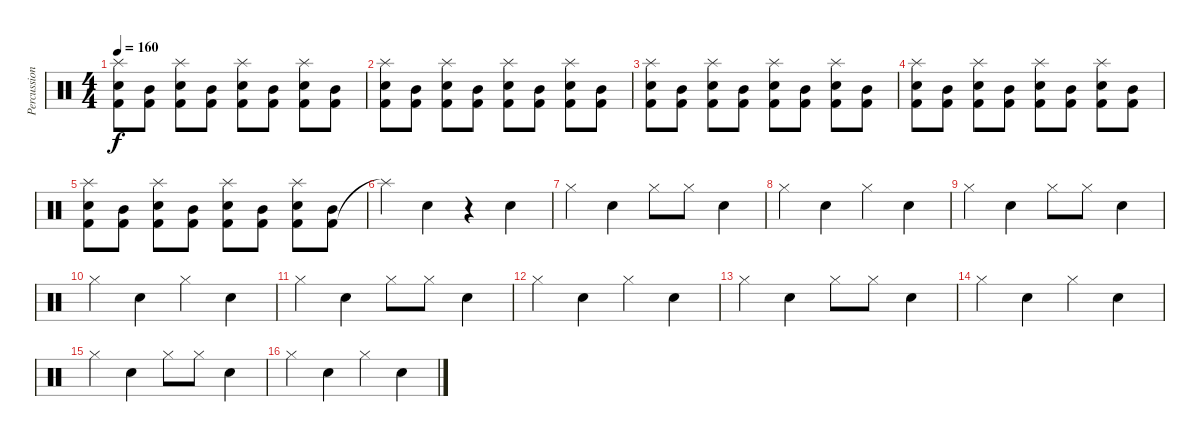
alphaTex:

\track ("Percussion" "Percussion") {instrument percussion}
\staff {score}
\articulation defaults
\ts (4 4)
\tempo 160
\clef neutral
\ks c
("Kick (hit) 2" "Snare (hit) 2" "Splash (hit)").8{dy f} ("Kick (hit) 2" "Mid Tom (hit)").8 ("Kick (hit) 2" "Snare (hit) 2" "Splash (hit)").8 ("Kick (hit) 2" "Mid Tom (hit)").8 ("Kick (hit) 2" "Snare (hit) 2" "Splash (hit)").8 ("Kick (hit) 2" "Mid Tom (hit)").8 ("Kick (hit) 2" "Snare (hit) 2" "Splash (hit)").8 ("Kick (hit) 2" "Mid Tom (hit)").8 |
("Kick (hit) 2" "Snare (hit) 2" "Splash (hit)").8 ("Kick (hit) 2" "Mid Tom (hit)").8 ("Kick (hit) 2" "Snare (hit) 2" "Splash (hit)").8 ("Kick (hit) 2" "Mid Tom (hit)").8 ("Kick (hit) 2" "Snare (hit) 2" "Splash (hit)").8 ("Kick (hit) 2" "Mid Tom (hit)").8 ("Kick (hit) 2" "Snare (hit) 2" "Splash (hit)").8 ("Kick (hit) 2" "Mid Tom (hit)").8 |
("Kick (hit) 2" "Snare (hit) 2" "Splash (hit)").8 ("Kick (hit) 2" "Mid Tom (hit)").8 ("Kick (hit) 2" "Snare (hit) 2" "Splash (hit)").8 ("Kick (hit) 2" "Mid Tom (hit)").8 ("Kick (hit) 2" "Snare (hit) 2" "Splash (hit)").8 ("Kick (hit) 2" "Mid Tom (hit)").8 ("Kick (hit) 2" "Snare (hit) 2" "Splash (hit)").8 ("Kick (hit) 2" "Mid Tom (hit)").8 |
("Kick (hit) 2" "Snare (hit) 2" "Splash (hit)").8 ("Kick (hit) 2" "Mid Tom (hit)").8 ("Kick (hit) 2" "Snare (hit) 2" "Splash (hit)").8 ("Kick (hit) 2" "Mid Tom (hit)").8 ("Kick (hit) 2" "Snare (hit) 2" "Splash (hit)").8 ("Kick (hit) 2" "Mid Tom (hit)").8 ("Kick (hit) 2" "Snare (hit) 2" "Splash (hit)").8 ("Kick (hit) 2" "Mid Tom (hit)").8 |
("Kick (hit) 2" "Snare (hit) 2" "Splash (hit)").8 ("Kick (hit) 2" "Mid Tom (hit)").8 ("Kick (hit) 2" "Snare (hit) 2" "Splash (hit)").8 ("Kick (hit) 2" "Mid Tom (hit)").8 ("Kick (hit) 2" "Snare (hit) 2" "Splash (hit)").8 ("Kick (hit) 2" "Mid Tom (hit)").8 ("Kick (hit) 2" "Snare (hit) 2" "Splash (hit)").8 ("Kick (hit) 2" "Mid Tom (hit)").8 |
"Splash (hit)"{t}.4 "Snare (hit) 2".4 r.4 "Snare (hit) 2".4 |
"Hi-Hat (closed)".4 "Snare (hit) 2".4 "Hi-Hat (closed)".8 "Hi-Hat (closed)".8 "Snare (hit) 2".4 |
"Hi-Hat (closed)".4 "Snare (hit) 2".4 "Hi-Hat (closed)".4 "Snare (hit) 2".4 |
"Hi-Hat (closed)".4 "Snare (hit) 2".4 "Hi-Hat (closed)".8 "Hi-Hat (closed)".8 "Snare (hit) 2".4 |
"Hi-Hat (closed)".4 "Snare (hit) 2".4 "Hi-Hat (closed)".4 "Snare (hit) 2".4 |
"Hi-Hat (closed)".4 "Snare (hit) 2".4 "Hi-Hat (closed)".8 "Hi-Hat (closed)".8 "Snare (hit) 2".4 |
"Hi-Hat (closed)".4 "Snare (hit) 2".4 "Hi-Hat (closed)".4 "Snare (hit) 2".4 |
"Hi-Hat (closed)".4 "Snare (hit) 2".4 "Hi-Hat (closed)".8 "Hi-Hat (closed)".8 "Snare (hit) 2".4 |
"Hi-Hat (closed)".4 "Snare (hit) 2".4 "Hi-Hat (closed)".4 "Snare (hit) 2".4 |
"Hi-Hat (closed)".4 "Snare (hit) 2".4 "Hi-Hat (closed)".8 "Hi-Hat (closed)".8 "Snare (hit) 2".4 |
"Hi-Hat (closed)".4 "Snare (hit) 2".4 "Hi-Hat (closed)".4 "Snare (hit) 2".4
